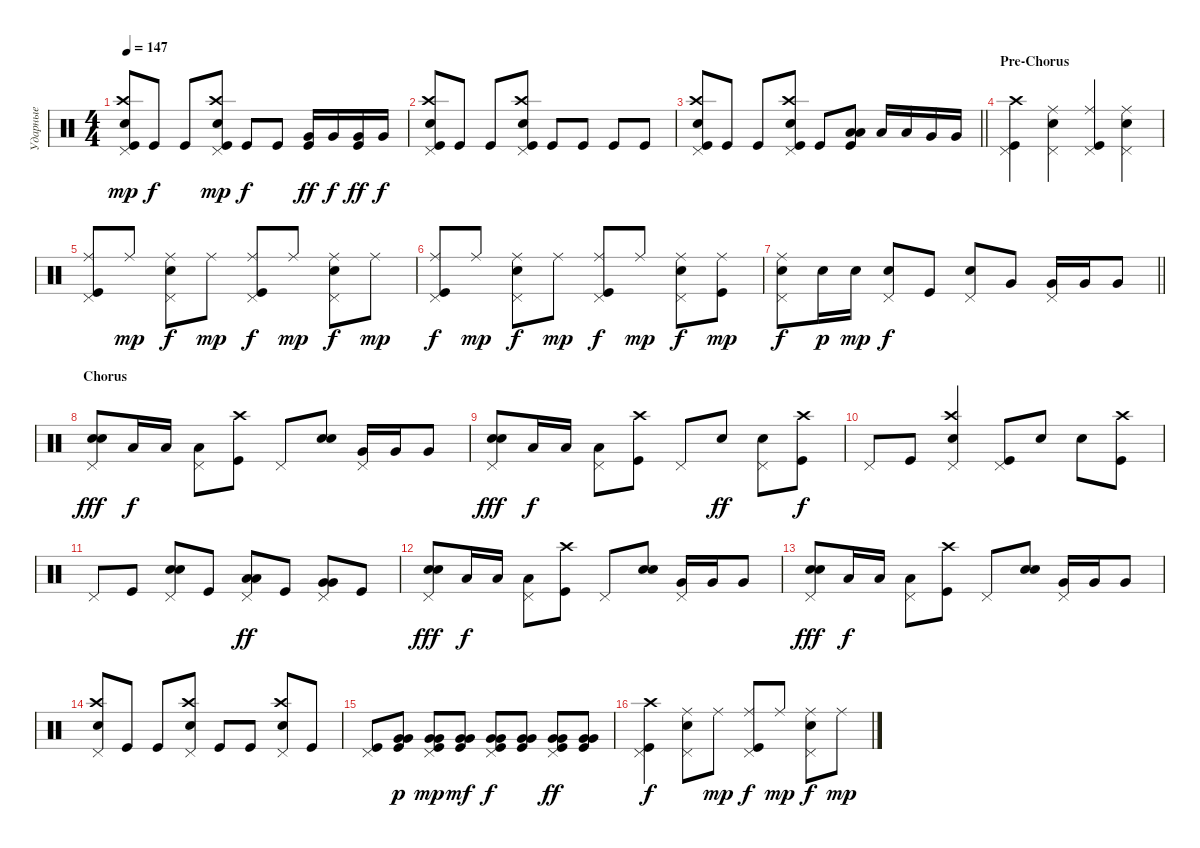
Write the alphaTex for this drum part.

\track ("Ударные" "Ударные") {instrument percussion}
\staff {score}
\articulation defaults
\ts (4 4)
\tempo 147
\clef neutral
\ks c
("Snare (hit) 2" "Crash high (hit)" "Pedal Hi-Hat (hit)" "Kick (hit)").8{dy mp} "Kick (hit)".8{dy f} "Kick (hit)".8 ("Snare (hit) 2" "Crash high (hit)" "Pedal Hi-Hat (hit)" "Kick (hit)").8{dy mp} "Kick (hit)".8{dy f} "Kick (hit)".8 ("Kick (hit)" "Very Low Tom (hit)").16{dy ff} "Very Low Tom (hit)".16{dy f} ("Kick (hit)" "Very Low Tom (hit)").16{dy ff} "Very Low Tom (hit)".16{dy f} |
("Snare (hit) 2" "Crash high (hit)" "Pedal Hi-Hat (hit)" "Kick (hit)").8 "Kick (hit)".8 "Kick (hit)".8 ("Snare (hit) 2" "Crash high (hit)" "Pedal Hi-Hat (hit)" "Kick (hit)").8 "Kick (hit)".8 "Kick (hit)".8 "Kick (hit)".8 "Kick (hit)".8 |
\barLineRight lightlight
("Snare (hit) 2" "Crash high (hit)" "Pedal Hi-Hat (hit)" "Kick (hit)").8 "Kick (hit)".8 "Kick (hit)".8 ("Snare (hit) 2" "Crash high (hit)" "Pedal Hi-Hat (hit)" "Kick (hit)").8 "Kick (hit)".8 ("Low Tom (hit)" "Low Tom (hit)" "Kick (hit)").8{bd 480} "Low Tom (hit)".16 "Low Tom (hit)".16 "Very Low Tom (hit)".16 "Very Low Tom (hit)".16 |
\section ("" "Pre-Chorus")
("Kick (hit)" "Pedal Hi-Hat (hit)" "Crash high (hit)").4 ("Snare (hit) 2" "Ride (middle)" "Pedal Hi-Hat (hit)").4 ("Kick (hit)" "Ride (middle)" "Pedal Hi-Hat (hit)").4 ("Snare (hit) 2" "Ride (middle)" "Pedal Hi-Hat (hit)").4 |
("Kick (hit)" "Ride (middle)" "Pedal Hi-Hat (hit)").8 "Ride (middle)".8{dy mp} ("Snare (hit) 2" "Ride (middle)" "Pedal Hi-Hat (hit)").8{dy f} "Ride (middle)".8{dy mp} ("Kick (hit)" "Pedal Hi-Hat (hit)" "Ride (middle)").8{dy f} "Ride (middle)".8{dy mp} ("Snare (hit) 2" "Pedal Hi-Hat (hit)" "Ride (middle)").8{dy f} "Ride (middle)".8{dy mp} |
("Kick (hit)" "Ride (middle)" "Pedal Hi-Hat (hit)").8{dy f} "Ride (middle)".8{dy mp} ("Snare (hit) 2" "Ride (middle)" "Pedal Hi-Hat (hit)").8{dy f} "Ride (middle)".8{dy mp} ("Kick (hit)" "Pedal Hi-Hat (hit)" "Ride (middle)").8{dy f} "Ride (middle)".8{dy mp} ("Snare (hit) 2" "Pedal Hi-Hat (hit)" "Ride (middle)").8{dy f} ("Kick (hit)" "Ride (middle)").8{dy mp} |
\barLineRight lightlight
("Snare (hit) 2" "Ride (middle)" "Pedal Hi-Hat (hit)").8{dy f} "Snare (hit) 2".16{dy p} "Snare (hit) 2".16{dy mp} ("Snare (hit) 2" "Pedal Hi-Hat (hit)").8{dy f} "Kick (hit)".8 ("Snare (hit) 2" "Pedal Hi-Hat (hit)").8 "Very Low Tom (hit)".8 ("Very Low Tom (hit)" "Pedal Hi-Hat (hit)").16 "Very Low Tom (hit)".16 "Very Low Tom (hit)".8 |
\section ("" "Chorus")
("Snare (hit) 2" "Snare (hit) 2" "Pedal Hi-Hat (hit)").8{bd 240 dy fff} "Low Tom (hit)".16{dy f} "Low Tom (hit)".16 ("Low Tom (hit)" "Pedal Hi-Hat (hit)").8 ("Kick (hit)" "Crash high (hit)").8 "Pedal Hi-Hat (hit)".8 ("Snare (hit) 2" "Snare (hit) 2").8{bd 240} ("Very Low Tom (hit)" "Pedal Hi-Hat (hit)").16 "Very Low Tom (hit)".16 "Very Low Tom (hit)".8 |
("Snare (hit) 2" "Snare (hit) 2" "Pedal Hi-Hat (hit)").8{bd 240 dy fff} "Low Tom (hit)".16{dy f} "Low Tom (hit)".16 ("Low Tom (hit)" "Pedal Hi-Hat (hit)").8 ("Kick (hit)" "Crash high (hit)").8 "Pedal Hi-Hat (hit)".8 "Snare (hit) 2".8{bd 240 dy ff} ("Snare (hit) 2" "Pedal Hi-Hat (hit)").8 ("Kick (hit)" "Crash high (hit)").8{dy f} |
"Pedal Hi-Hat (hit)".8 "Kick (hit)".8 ("Snare (hit) 2" "Crash high (hit)" "Pedal Hi-Hat (hit)").4 ("Kick (hit)" "Pedal Hi-Hat (hit)").8 "Snare (hit) 2".8 "Snare (hit) 2".8 ("Kick (hit)" "Crash high (hit)").8 |
"Pedal Hi-Hat (hit)".8 "Kick (hit)".8 ("Snare (hit) 2" "Snare (hit) 2" "Pedal Hi-Hat (hit)").8{bd 240} "Kick (hit)".8 ("Low Tom (hit)" "Low Tom (hit)" "Pedal Hi-Hat (hit)").8{bd 240 dy ff} "Kick (hit)".8 ("Very Low Tom (hit)" "Very Low Tom (hit)" "Pedal Hi-Hat (hit)").8{bd 240} "Kick (hit)".8 |
("Snare (hit) 2" "Snare (hit) 2" "Pedal Hi-Hat (hit)").8{bd 240 dy fff} "Low Tom (hit)".16{dy f} "Low Tom (hit)".16 ("Low Tom (hit)" "Pedal Hi-Hat (hit)").8 ("Kick (hit)" "Crash high (hit)").8 "Pedal Hi-Hat (hit)".8 ("Snare (hit) 2" "Snare (hit) 2").8{bd 240} ("Very Low Tom (hit)" "Pedal Hi-Hat (hit)").16 "Very Low Tom (hit)".16 "Very Low Tom (hit)".8 |
("Snare (hit) 2" "Snare (hit) 2" "Pedal Hi-Hat (hit)").8{bd 240 dy fff} "Low Tom (hit)".16{dy f} "Low Tom (hit)".16 ("Low Tom (hit)" "Pedal Hi-Hat (hit)").8 ("Kick (hit)" "Crash high (hit)").8 "Pedal Hi-Hat (hit)".8 ("Snare (hit) 2" "Snare (hit) 2").8{bd 240} ("Very Low Tom (hit)" "Pedal Hi-Hat (hit)").16 "Very Low Tom (hit)".16 "Very Low Tom (hit)".8 |
("Snare (hit) 2" "Crash high (hit)" "Pedal Hi-Hat (hit)").8 "Kick (hit)".8 "Kick (hit)".8 ("Snare (hit) 2" "Crash high (hit)" "Pedal Hi-Hat (hit)").8 "Kick (hit)".8 "Kick (hit)".8 ("Snare (hit) 2" "Crash high (hit)" "Pedal Hi-Hat (hit)").8 "Kick (hit)".8 |
("Kick (hit)" "Pedal Hi-Hat (hit)").8 ("Kick (hit)" "Very Low Tom (hit)" "Very Low Tom (hit)").8{bd 60 dy p} ("Kick (hit)" "Very Low Tom (hit)" "Pedal Hi-Hat (hit)" "Very Low Tom (hit)").8{bd 60 dy mp} ("Kick (hit)" "Very Low Tom (hit)" "Very Low Tom (hit)").8{bd 240 dy mf} ("Kick (hit)" "Very Low Tom (hit)" "Pedal Hi-Hat (hit)" "Very Low Tom (hit)").8{bd 240 dy f} ("Kick (hit)" "Very Low Tom (hit)" "Very Low Tom (hit)").8{bd 240} ("Kick (hit)" "Very Low Tom (hit)" "Pedal Hi-Hat (hit)" "Very Low Tom (hit)").8{bd 240 dy ff} ("Kick (hit)" "Very Low Tom (hit)" "Very Low Tom (hit)").8{bd 240} |
("Kick (hit)" "Pedal Hi-Hat (hit)" "Crash high (hit)").4{dy f} ("Snare (hit) 2" "Ride (middle)" "Pedal Hi-Hat (hit)").8 "Ride (middle)".8{dy mp} ("Kick (hit)" "Ride (middle)" "Pedal Hi-Hat (hit)").8{dy f} "Ride (middle)".8{dy mp} ("Snare (hit) 2" "Ride (middle)" "Pedal Hi-Hat (hit)").8{dy f} "Ride (middle)".8{dy mp}
